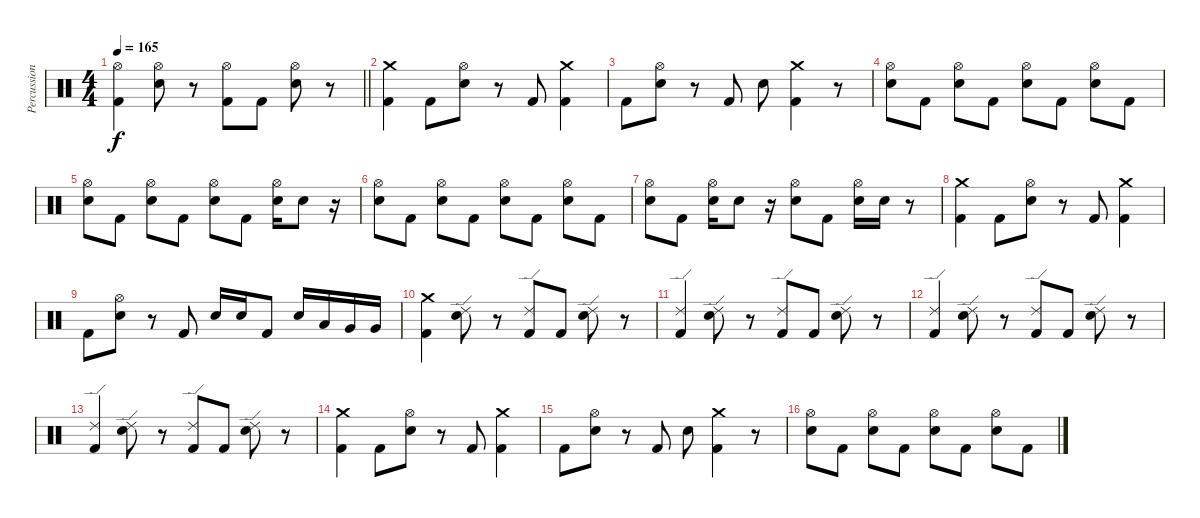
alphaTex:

\track ("Percussion" "Percussion") {instrument percussion}
\staff {score}
\articulation defaults
\ts (4 4)
\tempo 165
\clef neutral
\barLineRight lightlight
\ks c
("Hi-Hat (open)" "Kick (hit) 2").4{dy f} ("Hi-Hat (open)" "Electric Snare (hit)").8 r.8 ("Hi-Hat (open)" "Kick (hit) 2").8 "Kick (hit) 2".8 ("Hi-Hat (open)" "Electric Snare (hit)").8 r.8 |
("Crash medium (hit)" "Kick (hit) 2").4 "Kick (hit) 2".8 ("Hi-Hat (open)" "Electric Snare (hit)").8 r.8 "Kick (hit) 2".8 ("Crash medium (hit)" "Kick (hit) 2").4 |
"Kick (hit) 2".8 ("Hi-Hat (open)" "Electric Snare (hit)").8 r.8 "Kick (hit) 2".8 "Electric Snare (hit)".8 ("Crash medium (hit)" "Kick (hit) 2").4 r.8 |
("Hi-Hat (open)" "Electric Snare (hit)").8 "Kick (hit) 2".8 ("Hi-Hat (open)" "Electric Snare (hit)").8 "Kick (hit) 2".8 ("Hi-Hat (open)" "Electric Snare (hit)").8 "Kick (hit) 2".8 ("Hi-Hat (open)" "Electric Snare (hit)").8 "Kick (hit) 2".8 |
("Hi-Hat (open)" "Electric Snare (hit)").8 "Kick (hit) 2".8 ("Hi-Hat (open)" "Electric Snare (hit)").8 "Kick (hit) 2".8 ("Hi-Hat (open)" "Electric Snare (hit)").8 "Kick (hit) 2".8 ("Hi-Hat (open)" "Electric Snare (hit)").16 "Electric Snare (hit)".8 r.16 |
("Hi-Hat (open)" "Electric Snare (hit)").8 "Kick (hit) 2".8 ("Hi-Hat (open)" "Electric Snare (hit)").8 "Kick (hit) 2".8 ("Hi-Hat (open)" "Electric Snare (hit)").8 "Kick (hit) 2".8 ("Hi-Hat (open)" "Electric Snare (hit)").8 "Kick (hit) 2".8 |
("Hi-Hat (open)" "Electric Snare (hit)").8 "Kick (hit) 2".8 ("Hi-Hat (open)" "Electric Snare (hit)").16 "Electric Snare (hit)".8 r.16 ("Hi-Hat (open)" "Electric Snare (hit)").8 "Kick (hit) 2".8 ("Hi-Hat (open)" "Electric Snare (hit)").16 "Electric Snare (hit)".16 r.8 |
("Crash medium (hit)" "Kick (hit) 2").4 "Kick (hit) 2".8 ("Hi-Hat (open)" "Electric Snare (hit)").8 r.8 "Kick (hit) 2".8 ("Crash medium (hit)" "Kick (hit) 2").4 |
"Kick (hit) 2".8 ("Hi-Hat (open)" "Electric Snare (hit)").8 r.8 "Kick (hit) 2".8 "Electric Snare (hit)".16 "Electric Snare (hit)".16 "Kick (hit) 2".8 "Electric Snare (hit)".16 "Low Tom (hit)".16 "Very Low Tom (hit)".16 "Very Low Tom (hit)".16 |
("Crash medium (hit)" "Kick (hit) 2").4 ("Ride (edge) 2" "Electric Snare (hit)").8 r.8 ("Ride (edge) 2" "Kick (hit) 2").8 "Kick (hit) 2".8 ("Ride (edge) 2" "Electric Snare (hit)").8 r.8 |
("Ride (edge) 2" "Kick (hit) 2").4 ("Ride (edge) 2" "Electric Snare (hit)").8 r.8 ("Ride (edge) 2" "Kick (hit) 2").8 "Kick (hit) 2".8 ("Ride (edge) 2" "Electric Snare (hit)").8 r.8 |
("Ride (edge) 2" "Kick (hit) 2").4 ("Ride (edge) 2" "Electric Snare (hit)").8 r.8 ("Ride (edge) 2" "Kick (hit) 2").8 "Kick (hit) 2".8 ("Ride (edge) 2" "Electric Snare (hit)").8 r.8 |
("Ride (edge) 2" "Kick (hit) 2").4 ("Ride (edge) 2" "Electric Snare (hit)").8 r.8 ("Ride (edge) 2" "Kick (hit) 2").8 "Kick (hit) 2".8 ("Ride (edge) 2" "Electric Snare (hit)").8 r.8 |
("Crash medium (hit)" "Kick (hit) 2").4 "Kick (hit) 2".8 ("Hi-Hat (open)" "Electric Snare (hit)").8 r.8 "Kick (hit) 2".8 ("Crash medium (hit)" "Kick (hit) 2").4 |
"Kick (hit) 2".8 ("Hi-Hat (open)" "Electric Snare (hit)").8 r.8 "Kick (hit) 2".8 "Electric Snare (hit)".8 ("Crash medium (hit)" "Kick (hit) 2").4 r.8 |
("Hi-Hat (open)" "Electric Snare (hit)").8 "Kick (hit) 2".8 ("Hi-Hat (open)" "Electric Snare (hit)").8 "Kick (hit) 2".8 ("Hi-Hat (open)" "Electric Snare (hit)").8 "Kick (hit) 2".8 ("Hi-Hat (open)" "Electric Snare (hit)").8 "Kick (hit) 2".8
